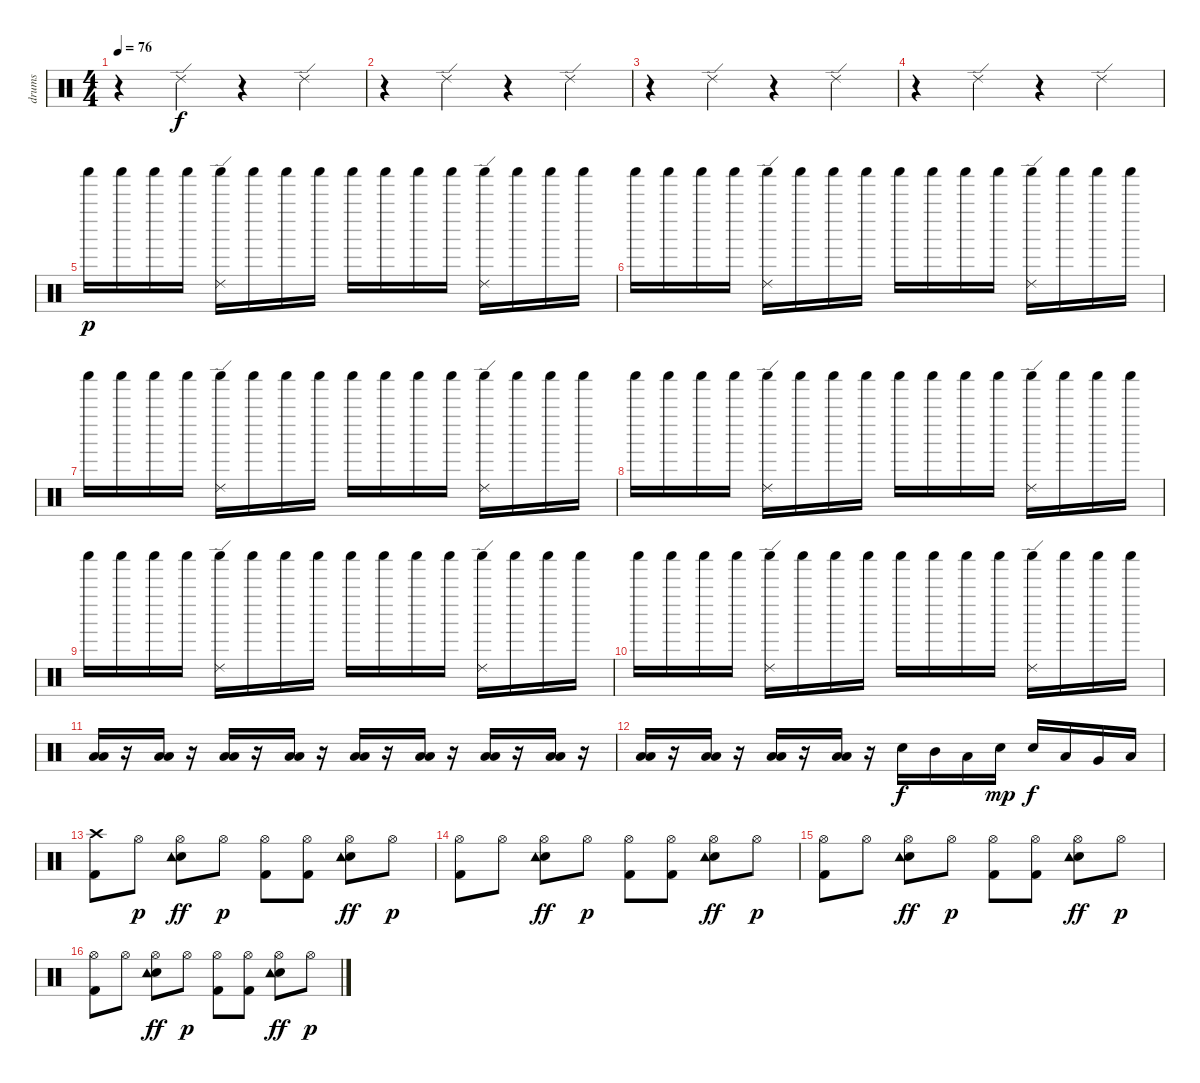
\track ("drums" "drums") {instrument percussion}
\staff {score}
\articulation defaults
\ts (4 4)
\tempo 76
\clef neutral
\ks c
r.4{dy f} "Ride (edge) 2".4 r.4 "Ride (edge) 2".4 |
r.4 "Ride (edge) 2".4 r.4 "Ride (edge) 2".4 |
r.4 "Ride (edge) 2".4 r.4 "Ride (edge) 2".4 |
r.4 "Ride (edge) 2".4 r.4 "Ride (edge) 2".4 |
"Shaker (hit)".16{dy p volume 11} "Shaker (hit)".16 "Shaker (hit)".16 "Shaker (hit)".16 ("Ride (edge) 2" "Shaker (hit)").16 "Shaker (hit)".16 "Shaker (hit)".16 "Shaker (hit)".16 "Shaker (hit)".16 "Shaker (hit)".16 "Shaker (hit)".16 "Shaker (hit)".16 ("Ride (edge) 2" "Shaker (hit)").16 "Shaker (hit)".16 "Shaker (hit)".16 "Shaker (hit)".16 |
"Shaker (hit)".16{volume 11} "Shaker (hit)".16 "Shaker (hit)".16 "Shaker (hit)".16 ("Ride (edge) 2" "Shaker (hit)").16 "Shaker (hit)".16 "Shaker (hit)".16 "Shaker (hit)".16 "Shaker (hit)".16 "Shaker (hit)".16 "Shaker (hit)".16 "Shaker (hit)".16 ("Ride (edge) 2" "Shaker (hit)").16 "Shaker (hit)".16 "Shaker (hit)".16 "Shaker (hit)".16 |
"Shaker (hit)".16{volume 11} "Shaker (hit)".16 "Shaker (hit)".16 "Shaker (hit)".16 ("Ride (edge) 2" "Shaker (hit)").16 "Shaker (hit)".16 "Shaker (hit)".16 "Shaker (hit)".16 "Shaker (hit)".16 "Shaker (hit)".16 "Shaker (hit)".16 "Shaker (hit)".16 ("Ride (edge) 2" "Shaker (hit)").16 "Shaker (hit)".16 "Shaker (hit)".16 "Shaker (hit)".16 |
"Shaker (hit)".16{volume 11} "Shaker (hit)".16 "Shaker (hit)".16 "Shaker (hit)".16 ("Ride (edge) 2" "Shaker (hit)").16 "Shaker (hit)".16 "Shaker (hit)".16 "Shaker (hit)".16 "Shaker (hit)".16 "Shaker (hit)".16 "Shaker (hit)".16 "Shaker (hit)".16 ("Ride (edge) 2" "Shaker (hit)").16 "Shaker (hit)".16 "Shaker (hit)".16 "Shaker (hit)".16 |
"Shaker (hit)".16{volume 11} "Shaker (hit)".16 "Shaker (hit)".16 "Shaker (hit)".16 ("Ride (edge) 2" "Shaker (hit)").16 "Shaker (hit)".16 "Shaker (hit)".16 "Shaker (hit)".16 "Shaker (hit)".16 "Shaker (hit)".16 "Shaker (hit)".16 "Shaker (hit)".16 ("Ride (edge) 2" "Shaker (hit)").16 "Shaker (hit)".16 "Shaker (hit)".16 "Shaker (hit)".16 |
"Shaker (hit)".16{volume 11} "Shaker (hit)".16 "Shaker (hit)".16 "Shaker (hit)".16 ("Ride (edge) 2" "Shaker (hit)").16 "Shaker (hit)".16 "Shaker (hit)".16 "Shaker (hit)".16 "Shaker (hit)".16 "Shaker (hit)".16 "Shaker (hit)".16 "Shaker (hit)".16 ("Ride (edge) 2" "Shaker (hit)").16 "Shaker (hit)".16 "Shaker (hit)".16 "Shaker (hit)".16 |
("Low Tom (hit)" "Low Floor Tom (hit)").16{volume 16} r.16 ("Low Tom (hit)" "Low Floor Tom (hit)").16 r.16 ("Low Tom (hit)" "Low Floor Tom (hit)").16 r.16 ("Low Tom (hit)" "Low Floor Tom (hit)").16 r.16 ("Low Tom (hit)" "Low Floor Tom (hit)").16 r.16 ("Low Tom (hit)" "Low Floor Tom (hit)").16 r.16 ("Low Tom (hit)" "Low Floor Tom (hit)").16 r.16 ("Low Tom (hit)" "Low Floor Tom (hit)").16 r.16 |
("Low Tom (hit)" "Low Floor Tom (hit)").16 r.16 ("Low Tom (hit)" "Low Floor Tom (hit)").16 r.16 ("Low Tom (hit)" "Low Floor Tom (hit)").16 r.16 ("Low Tom (hit)" "Low Floor Tom (hit)").16 r.16 "Snare (hit) 2".16{dy f} "Mid Tom (hit)".16 "Low Tom (hit)".16 "Snare (hit) 2".16{dy mp} "Snare (hit) 2".16{dy f} "Low Tom (hit)".16 "Very Low Tom (hit)".16 "Low Floor Tom (hit)".16 |
("Crash high (hit)" "Kick (hit) 2").8 "Hi-Hat (open)".8{dy p} ("Hi-Hat (open)" "Snare (hit) 2" "Tambourine (hit)").8{dy ff} "Hi-Hat (open)".8{dy p} ("Hi-Hat (open)" "Kick (hit) 2").8 ("Hi-Hat (open)" "Kick (hit) 2").8 ("Hi-Hat (open)" "Snare (hit) 2" "Tambourine (hit)").8{dy ff} "Hi-Hat (open)".8{dy p} |
("Hi-Hat (open)" "Kick (hit) 2").8 "Hi-Hat (open)".8 ("Hi-Hat (open)" "Snare (hit) 2" "Tambourine (hit)").8{dy ff} "Hi-Hat (open)".8{dy p} ("Hi-Hat (open)" "Kick (hit) 2").8 ("Hi-Hat (open)" "Kick (hit) 2").8 ("Hi-Hat (open)" "Snare (hit) 2" "Tambourine (hit)").8{dy ff} "Hi-Hat (open)".8{dy p} |
("Hi-Hat (open)" "Kick (hit) 2").8 "Hi-Hat (open)".8 ("Hi-Hat (open)" "Snare (hit) 2" "Tambourine (hit)").8{dy ff} "Hi-Hat (open)".8{dy p} ("Hi-Hat (open)" "Kick (hit) 2").8 ("Hi-Hat (open)" "Kick (hit) 2").8 ("Hi-Hat (open)" "Snare (hit) 2" "Tambourine (hit)").8{dy ff} "Hi-Hat (open)".8{dy p} |
("Hi-Hat (open)" "Kick (hit) 2").8 "Hi-Hat (open)".8 ("Hi-Hat (open)" "Snare (hit) 2" "Tambourine (hit)").8{dy ff} "Hi-Hat (open)".8{dy p} ("Hi-Hat (open)" "Kick (hit) 2").8 ("Hi-Hat (open)" "Kick (hit) 2").8 ("Hi-Hat (open)" "Snare (hit) 2" "Tambourine (hit)").8{dy ff} "Hi-Hat (open)".8{dy p}
